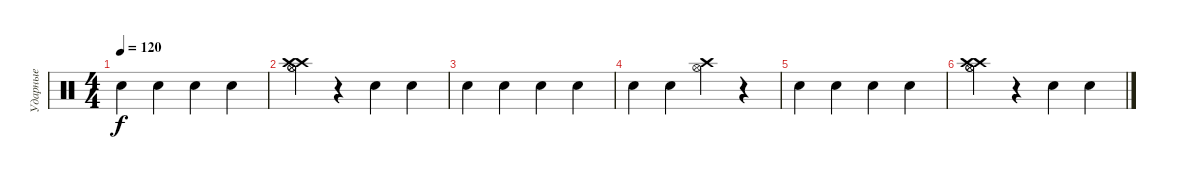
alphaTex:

\track ("Ударные" "Ударные") {instrument percussion}
\staff {score}
\articulation defaults
\ts (4 4)
\tempo 120
\clef neutral
\ks c "Electric Snare (hit)".4{dy f} "Electric Snare (hit)".4 "Electric Snare (hit)".4 "Electric Snare (hit)".4
|
("Hi-Hat (open)" "Crash high (hit)" "Hi-Hat (open)" "Crash high (hit)").4 r.4 "Electric Snare (hit)".4 "Electric Snare (hit)".4 |
"Electric Snare (hit)".4 "Electric Snare (hit)".4 "Electric Snare (hit)".4 "Electric Snare (hit)".4 |
"Electric Snare (hit)".4 "Electric Snare (hit)".4 ("Hi-Hat (open)" "Crash high (hit)").4 r.4 |
"Electric Snare (hit)".4 "Electric Snare (hit)".4 "Electric Snare (hit)".4 "Electric Snare (hit)".4 |
("Hi-Hat (open)" "Crash high (hit)" "Hi-Hat (open)" "Crash high (hit)").4 r.4 "Electric Snare (hit)".4 "Electric Snare (hit)".4
